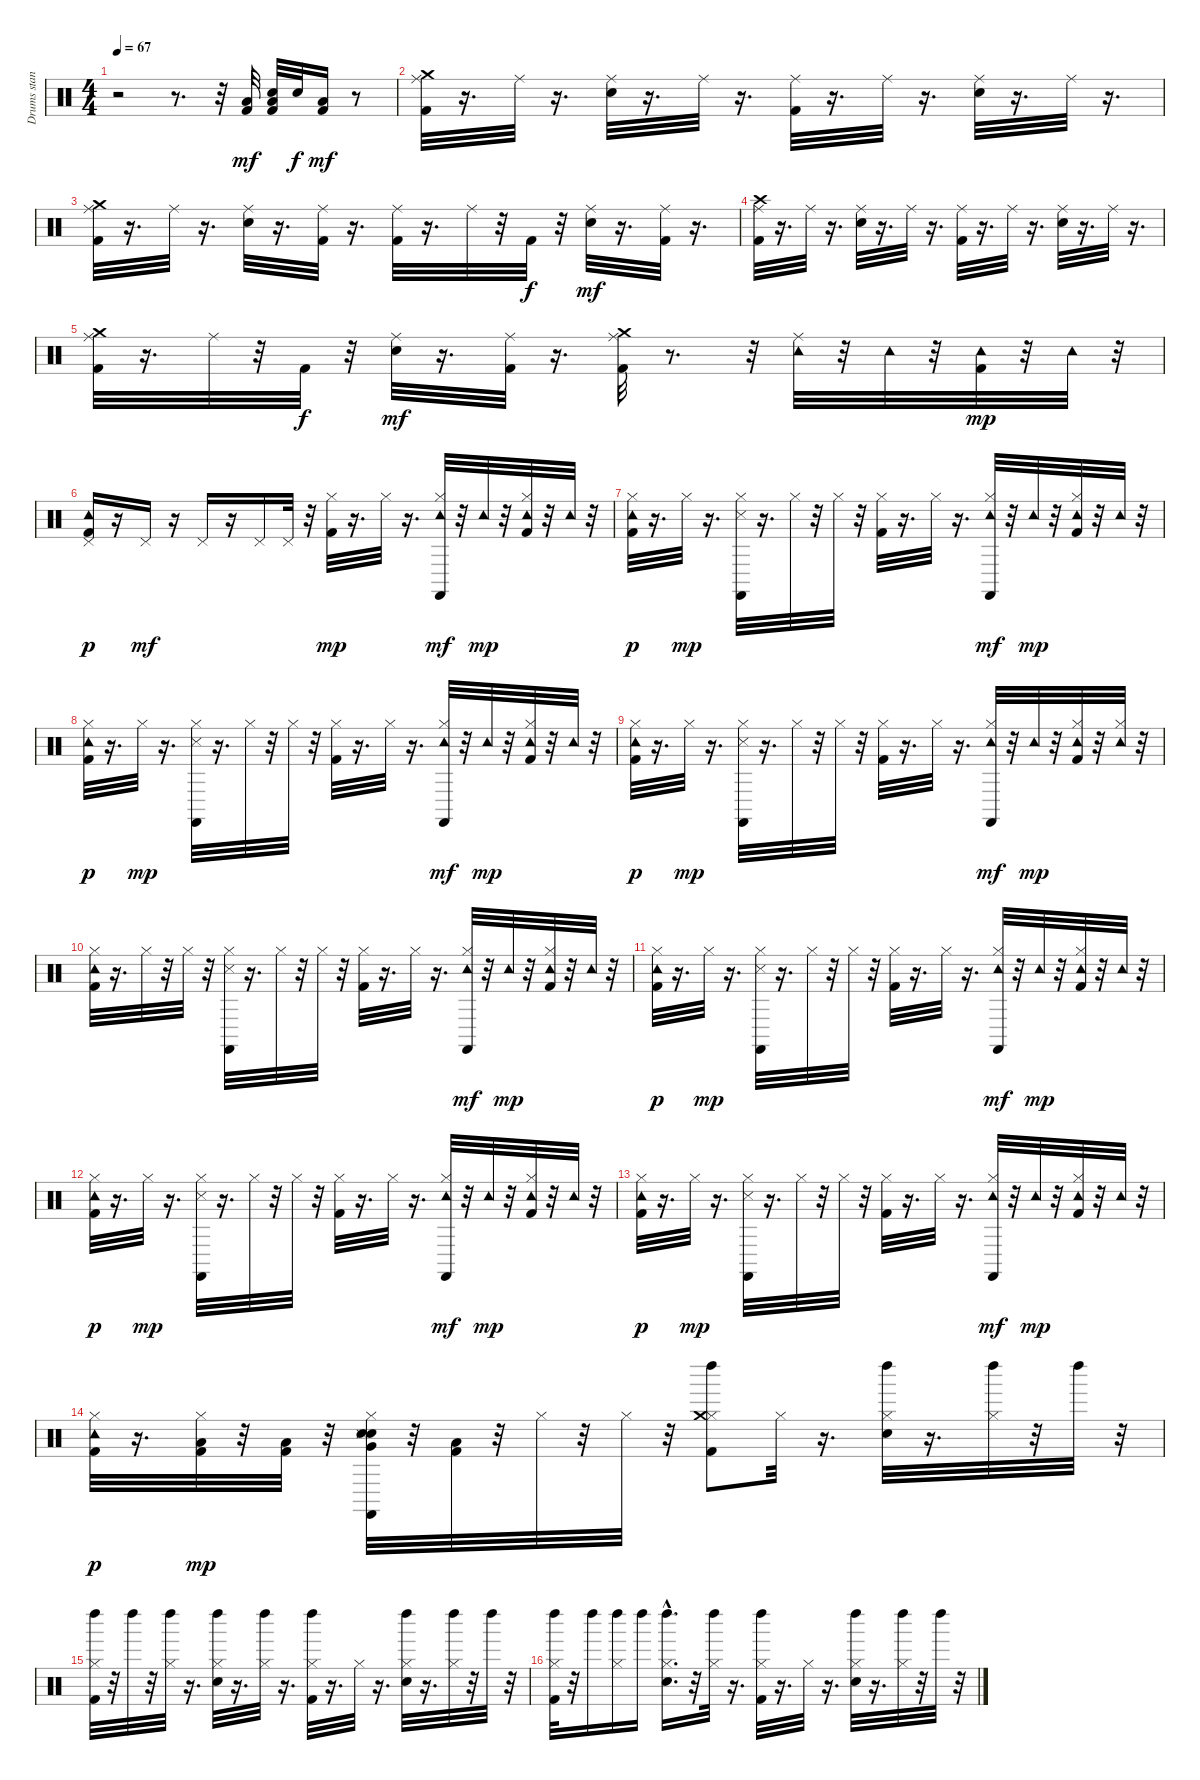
\track ("Drums stand. 1 ard" "Drums stan") {instrument percussion}
\staff {score}
\articulation defaults
\ts (4 4)
\tempo 67
\clef neutral
\ks c
r.2{dy mf} r.8{d} r.32 ("Low Floor Tom (hit)" "Kick (hit) 2").32 ("Low Floor Tom (hit)" "Kick (hit) 2" "Electric Snare (hit)").32 "Electric Snare (hit)".32{dy f} ("Low Floor Tom (hit)" "Kick (hit) 2").16{dy mf} r.8 |
("Kick (hit) 2" "Ride (middle)" "Crash medium (hit)").32 r.16{d} "Ride (middle)".32 r.16{d} ("Electric Snare (hit)" "Ride (middle)").32 r.16{d} "Ride (middle)".32 r.16{d} ("Kick (hit) 2" "Ride (middle)").32 r.16{d} "Ride (middle)".32 r.16{d} ("Electric Snare (hit)" "Ride (middle)").32 r.16{d} "Ride (middle)".32 r.16{d} |
("Kick (hit) 2" "Ride (middle)" "Crash medium (hit)").32 r.16{d} "Ride (middle)".32 r.16{d} ("Electric Snare (hit)" "Ride (middle)").32 r.16{d} ("Kick (hit) 2" "Ride (middle)").32 r.16{d} ("Kick (hit) 2" "Ride (middle)").32 r.16{d} "Ride (middle)".32 r.32 "Kick (hit) 2".32{dy f} r.32 ("Electric Snare (hit)" "Ride (middle)").32{dy mf} r.16{d} ("Kick (hit) 2" "Ride (middle)").32 r.16{d} |
("Kick (hit) 2" "Ride (middle)" "Crash high (hit)").32 r.16{d} "Ride (middle)".32 r.16{d} ("Electric Snare (hit)" "Ride (middle)").32 r.16{d} "Ride (middle)".32 r.16{d} ("Kick (hit) 2" "Ride (middle)").32 r.16{d} "Ride (middle)".32 r.16{d} ("Electric Snare (hit)" "Ride (middle)").32 r.16{d} "Ride (middle)".32 r.16{d} |
("Kick (hit) 2" "Ride (middle)" "Crash medium (hit)").32 r.16{d} "Ride (middle)".32 r.32 "Kick (hit) 2".32{dy f} r.32 ("Electric Snare (hit)" "Ride (middle)").32{dy mf} r.16{d} ("Kick (hit) 2" "Ride (middle)").32 r.16{d} ("Kick (hit) 2" "Ride (middle)" "Crash medium (hit)").32 r.8{d} r.32 ("Tambourine (hit)" "Ride (middle)").32 r.32 "Tambourine (hit)".32 r.32 ("Kick (hit) 2" "Tambourine (hit)").32{dy mp} r.32 "Tambourine (hit)".32 r.32 |
("Kick (hit) 2" "Pedal Hi-Hat (hit)" "Tambourine (hit)").16{dy p} r.16 "Pedal Hi-Hat (hit)".16{dy mf} r.16 "Pedal Hi-Hat (hit)".16 r.16 "Pedal Hi-Hat (hit)".16 "Pedal Hi-Hat (hit)".32 r.32 ("Kick (hit) 2" "Hi-Hat (closed)").32{dy mp} r.16{d} "Hi-Hat (closed)".32 r.16{d} ("Castanets (hit)" "Hi-Hat (closed)" "Tambourine (hit)").32{dy mf} r.32 "Tambourine (hit)".32{dy mp} r.32 ("Kick (hit) 2" "Hi-Hat (closed)" "Tambourine (hit)").32 r.32 "Tambourine (hit)".32 r.32 |
("Kick (hit) 2" "Hi-Hat (closed)" "Tambourine (hit)").32{dy p} r.16{d} "Hi-Hat (closed)".32{dy mp} r.16{d} ("Castanets (hit)" "Snare (side stick) 3" "Hi-Hat (closed)").32 r.16{d} "Hi-Hat (closed)".32 r.32 "Hi-Hat (closed)".32 r.32 ("Kick (hit) 2" "Hi-Hat (closed)").32 r.16{d} "Hi-Hat (closed)".32 r.16{d} ("Castanets (hit)" "Hi-Hat (closed)" "Tambourine (hit)").32{dy mf} r.32 "Tambourine (hit)".32{dy mp} r.32 ("Kick (hit) 2" "Hi-Hat (closed)" "Tambourine (hit)").32 r.32 "Tambourine (hit)".32 r.32 |
("Kick (hit) 2" "Hi-Hat (closed)" "Tambourine (hit)").32{dy p} r.16{d} "Hi-Hat (closed)".32{dy mp} r.16{d} ("Castanets (hit)" "Snare (side stick) 3" "Hi-Hat (closed)").32 r.16{d} "Hi-Hat (closed)".32 r.32 "Hi-Hat (closed)".32 r.32 ("Kick (hit) 2" "Hi-Hat (closed)").32 r.16{d} "Hi-Hat (closed)".32 r.16{d} ("Castanets (hit)" "Hi-Hat (closed)" "Tambourine (hit)").32{dy mf} r.32 "Tambourine (hit)".32{dy mp} r.32 ("Kick (hit) 2" "Hi-Hat (closed)" "Tambourine (hit)").32 r.32 "Tambourine (hit)".32 r.32 |
("Kick (hit) 2" "Hi-Hat (closed)" "Tambourine (hit)").32{dy p} r.16{d} "Hi-Hat (closed)".32{dy mp} r.16{d} ("Castanets (hit)" "Snare (side stick) 3" "Hi-Hat (closed)").32 r.16{d} "Hi-Hat (closed)".32 r.32 "Hi-Hat (closed)".32 r.32 ("Kick (hit) 2" "Hi-Hat (closed)").32 r.16{d} "Hi-Hat (closed)".32 r.16{d} ("Castanets (hit)" "Hi-Hat (closed)" "Tambourine (hit)").32{dy mf} r.32 "Tambourine (hit)".32{dy mp} r.32 ("Kick (hit) 2" "Tambourine (hit)" "Hi-Hat (closed)").32 r.32 ("Tambourine (hit)" "Hi-Hat (closed)").32 r.32 |
("Kick (hit) 2" "Tambourine (hit)" "Hi-Hat (closed)").32 r.16{d} "Hi-Hat (closed)".32 r.32 "Hi-Hat (closed)".32 r.32 ("Castanets (hit)" "Snare (side stick) 3" "Hi-Hat (closed)").32 r.16{d} "Hi-Hat (closed)".32 r.32 "Hi-Hat (closed)".32 r.32 ("Kick (hit) 2" "Hi-Hat (closed)").32 r.16{d} "Hi-Hat (closed)".32 r.16{d} ("Castanets (hit)" "Hi-Hat (closed)" "Tambourine (hit)").32{dy mf} r.32 "Tambourine (hit)".32{dy mp} r.32 ("Kick (hit) 2" "Hi-Hat (closed)" "Tambourine (hit)").32 r.32 "Tambourine (hit)".32 r.32 |
("Kick (hit) 2" "Hi-Hat (closed)" "Tambourine (hit)").32{dy p} r.16{d} "Hi-Hat (closed)".32{dy mp} r.16{d} ("Castanets (hit)" "Snare (side stick) 3" "Hi-Hat (closed)").32 r.16{d} "Hi-Hat (closed)".32 r.32 "Hi-Hat (closed)".32 r.32 ("Kick (hit) 2" "Hi-Hat (closed)").32 r.16{d} "Hi-Hat (closed)".32 r.16{d} ("Castanets (hit)" "Hi-Hat (closed)" "Tambourine (hit)").32{dy mf} r.32 "Tambourine (hit)".32{dy mp} r.32 ("Kick (hit) 2" "Hi-Hat (closed)" "Tambourine (hit)").32 r.32 "Tambourine (hit)".32 r.32 |
("Kick (hit) 2" "Hi-Hat (closed)" "Tambourine (hit)").32{dy p} r.16{d} "Hi-Hat (closed)".32{dy mp} r.16{d} ("Castanets (hit)" "Snare (side stick) 3" "Hi-Hat (closed)").32 r.16{d} "Hi-Hat (closed)".32 r.32 "Hi-Hat (closed)".32 r.32 ("Kick (hit) 2" "Hi-Hat (closed)").32 r.16{d} "Hi-Hat (closed)".32 r.16{d} ("Castanets (hit)" "Hi-Hat (closed)" "Tambourine (hit)").32{dy mf} r.32 "Tambourine (hit)".32{dy mp} r.32 ("Kick (hit) 2" "Hi-Hat (closed)" "Tambourine (hit)").32 r.32 "Tambourine (hit)".32 r.32 |
("Kick (hit) 2" "Hi-Hat (closed)" "Tambourine (hit)").32{dy p} r.16{d} "Hi-Hat (closed)".32{dy mp} r.16{d} ("Castanets (hit)" "Snare (side stick) 3" "Hi-Hat (closed)").32 r.16{d} "Hi-Hat (closed)".32 r.32 "Hi-Hat (closed)".32 r.32 ("Kick (hit) 2" "Hi-Hat (closed)").32 r.16{d} "Hi-Hat (closed)".32 r.16{d} ("Castanets (hit)" "Hi-Hat (closed)" "Tambourine (hit)").32{dy mf} r.32 "Tambourine (hit)".32{dy mp} r.32 ("Kick (hit) 2" "Hi-Hat (closed)" "Tambourine (hit)").32 r.32 "Tambourine (hit)".32 r.32 |
("Kick (hit) 2" "Hi-Hat (closed)" "Tambourine (hit)").32{dy p} r.16{d} ("Hi-Hat (closed)" "Kick (hit) 2" "Low Floor Tom (hit)").32{dy mp} r.32 ("Kick (hit) 2" "Low Floor Tom (hit)").32 r.32 ("Electric Snare (hit)" "Castanets (hit)" "Snare (side stick) 3" "Hi-Hat (closed)" "Electric Snare (hit)" "Very Low Tom (hit)").32 r.32 ("Kick (hit) 2" "Low Floor Tom (hit)").32 r.32 "Hi-Hat (closed)".32 r.32 "Hi-Hat (closed)".32 r.32 ("Hi-Hat (closed)" "Kick (hit) 2" "Crash medium (hit)" "Left Maraca (hit)").8 "Hi-Hat (closed)".32 r.16{d} ("Hi-Hat (closed)" "Electric Snare (hit)" "Left Maraca (hit)").32 r.16{d} ("Hi-Hat (closed)" "Left Maraca (hit)").32 r.32 "Left Maraca (hit)".32 r.32 |
("Hi-Hat (closed)" "Kick (hit) 2" "Left Maraca (hit)").32 r.32 "Left Maraca (hit)".32 r.32 ("Hi-Hat (closed)" "Left Maraca (hit)").32 r.16{d} ("Hi-Hat (closed)" "Electric Snare (hit)" "Left Maraca (hit)").32 r.16{d} ("Hi-Hat (closed)" "Left Maraca (hit)").32 r.16{d} ("Hi-Hat (closed)" "Kick (hit) 2" "Left Maraca (hit)").32 r.16{d} "Hi-Hat (closed)".32 r.16{d} ("Hi-Hat (closed)" "Electric Snare (hit)" "Left Maraca (hit)").32 r.16{d} ("Hi-Hat (closed)" "Left Maraca (hit)").32 r.32 "Left Maraca (hit)".32 r.32 |
("Hi-Hat (closed)" "Kick (hit) 2" "Left Maraca (hit)").32 r.32 "Left Maraca (hit)".16 ("Hi-Hat (closed)" "Left Maraca (hit)").16 "Left Maraca (hit)".16 ("Hi-Hat (closed)" "Electric Snare (hit)" "Left Maraca (hit)"{hac}).16{d} r.32 ("Hi-Hat (closed)" "Left Maraca (hit)").32 r.16{d} ("Hi-Hat (closed)" "Kick (hit) 2" "Left Maraca (hit)").32 r.16{d} "Hi-Hat (closed)".32 r.16{d} ("Hi-Hat (closed)" "Electric Snare (hit)" "Left Maraca (hit)").32 r.16{d} ("Hi-Hat (closed)" "Left Maraca (hit)").32 r.32 "Left Maraca (hit)".32 r.32
